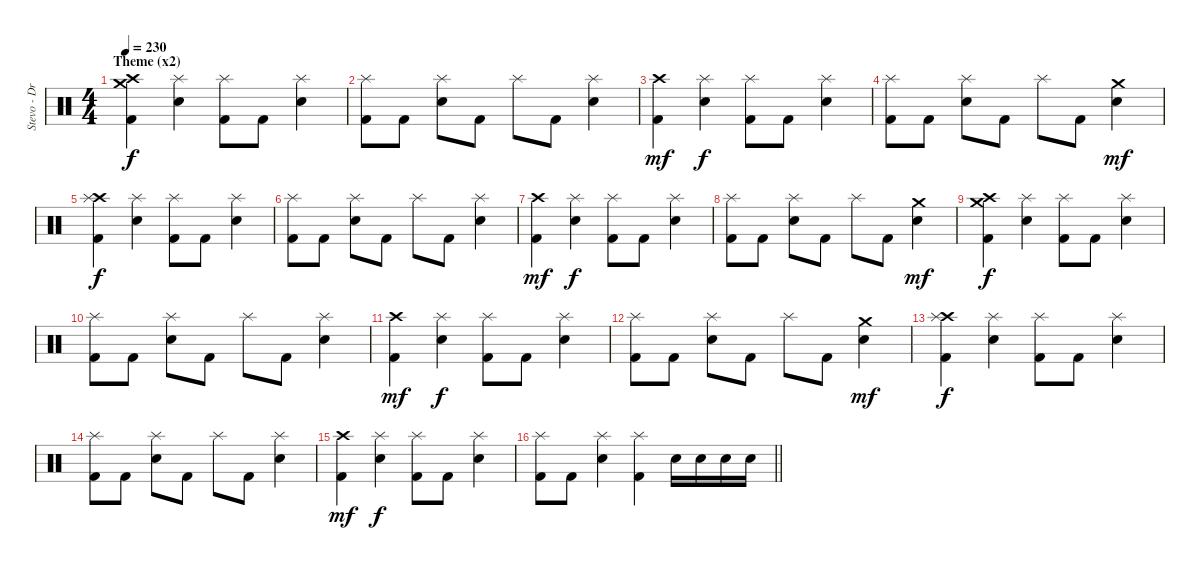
\track ("Stevo - Drums" "Stevo - Dr") {instrument percussion}
\staff {score}
\articulation defaults
\ts (4 4)
\section ("" "Theme (x2)")
\tempo 230
\clef neutral
\ks c
("Crash high (hit)" "Crash medium (hit)" "Kick (hit) 2").4{dy f} ("Splash (hit)" "Electric Snare (hit)").4 ("Splash (hit)" "Kick (hit) 2").8 "Kick (hit) 2".8 ("Splash (hit)" "Electric Snare (hit)").4 |
("Splash (hit)" "Kick (hit) 2").8 "Kick (hit) 2".8 ("Splash (hit)" "Electric Snare (hit)").8 "Kick (hit) 2".8 "Splash (hit)".8 "Kick (hit) 2".8 ("Splash (hit)" "Electric Snare (hit)").4 |
("Crash high (hit)" "Kick (hit) 2").4{dy mf} ("Splash (hit)" "Electric Snare (hit)").4{dy f} ("Splash (hit)" "Kick (hit) 2").8 "Kick (hit) 2".8 ("Splash (hit)" "Electric Snare (hit)").4 |
("Splash (hit)" "Kick (hit) 2").8 "Kick (hit) 2".8 ("Splash (hit)" "Electric Snare (hit)").8 "Kick (hit) 2".8 "Splash (hit)".8 "Kick (hit) 2".8 ("Crash medium (hit)" "Electric Snare (hit)").4{dy mf} |
("Crash high (hit)" "Splash (hit)" "Kick (hit) 2").4{dy f} ("Splash (hit)" "Electric Snare (hit)").4 ("Splash (hit)" "Kick (hit) 2").8 "Kick (hit) 2".8 ("Splash (hit)" "Electric Snare (hit)").4 |
("Splash (hit)" "Kick (hit) 2").8 "Kick (hit) 2".8 ("Splash (hit)" "Electric Snare (hit)").8 "Kick (hit) 2".8 "Splash (hit)".8 "Kick (hit) 2".8 ("Splash (hit)" "Electric Snare (hit)").4 |
("Crash high (hit)" "Kick (hit) 2").4{dy mf} ("Splash (hit)" "Electric Snare (hit)").4{dy f} ("Splash (hit)" "Kick (hit) 2").8 "Kick (hit) 2".8 ("Splash (hit)" "Electric Snare (hit)").4 |
("Splash (hit)" "Kick (hit) 2").8 "Kick (hit) 2".8 ("Splash (hit)" "Electric Snare (hit)").8 "Kick (hit) 2".8 "Splash (hit)".8 "Kick (hit) 2".8 ("Crash medium (hit)" "Electric Snare (hit)").4{dy mf} |
("Crash high (hit)" "Crash medium (hit)" "Kick (hit) 2").4{dy f} ("Splash (hit)" "Electric Snare (hit)").4 ("Splash (hit)" "Kick (hit) 2").8 "Kick (hit) 2".8 ("Splash (hit)" "Electric Snare (hit)").4 |
("Splash (hit)" "Kick (hit) 2").8 "Kick (hit) 2".8 ("Splash (hit)" "Electric Snare (hit)").8 "Kick (hit) 2".8 "Splash (hit)".8 "Kick (hit) 2".8 ("Splash (hit)" "Electric Snare (hit)").4 |
("Crash high (hit)" "Kick (hit) 2").4{dy mf} ("Splash (hit)" "Electric Snare (hit)").4{dy f} ("Splash (hit)" "Kick (hit) 2").8 "Kick (hit) 2".8 ("Splash (hit)" "Electric Snare (hit)").4 |
("Splash (hit)" "Kick (hit) 2").8 "Kick (hit) 2".8 ("Splash (hit)" "Electric Snare (hit)").8 "Kick (hit) 2".8 "Splash (hit)".8 "Kick (hit) 2".8 ("Crash medium (hit)" "Electric Snare (hit)").4{dy mf} |
("Crash high (hit)" "Splash (hit)" "Kick (hit) 2").4{dy f} ("Splash (hit)" "Electric Snare (hit)").4 ("Splash (hit)" "Kick (hit) 2").8 "Kick (hit) 2".8 ("Splash (hit)" "Electric Snare (hit)").4 |
("Splash (hit)" "Kick (hit) 2").8 "Kick (hit) 2".8 ("Splash (hit)" "Electric Snare (hit)").8 "Kick (hit) 2".8 "Splash (hit)".8 "Kick (hit) 2".8 ("Splash (hit)" "Electric Snare (hit)").4 |
("Crash high (hit)" "Kick (hit) 2").4{dy mf} ("Splash (hit)" "Electric Snare (hit)").4{dy f} ("Splash (hit)" "Kick (hit) 2").8 "Kick (hit) 2".8 ("Splash (hit)" "Electric Snare (hit)").4 |
\barLineRight lightlight
("Splash (hit)" "Kick (hit) 2").8 "Kick (hit) 2".8 ("Splash (hit)" "Electric Snare (hit)").4 ("Splash (hit)" "Kick (hit) 2").4 "Electric Snare (hit)".16 "Electric Snare (hit)".16 "Electric Snare (hit)".16 "Electric Snare (hit)".16
